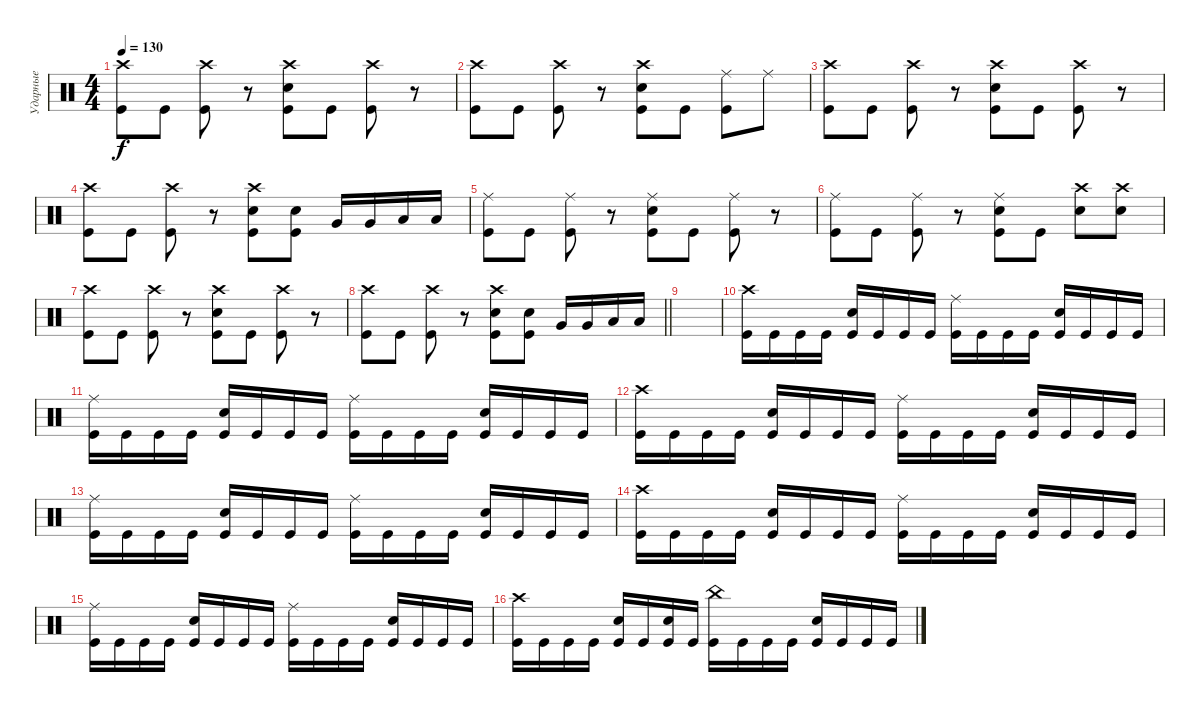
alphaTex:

\track ("Ударные" "Ударные") {instrument percussion}
\staff {score}
\articulation defaults
\ts (4 4)
\section ("" " ")
\tempo 130
\clef neutral
\ks c
("Crash high (hit)" "Kick (hit)").8{dy f} "Kick (hit)".8 ("Crash high (hit)" "Kick (hit)").8 r.8 ("Crash high (hit)" "Electric Snare (hit)" "Kick (hit)").8 "Kick (hit)".8 ("Crash high (hit)" "Kick (hit)").8 r.8 |
("Crash high (hit)" "Kick (hit)").8 "Kick (hit)".8 ("Crash high (hit)" "Kick (hit)").8 r.8 ("Crash high (hit)" "Electric Snare (hit)" "Kick (hit)").8 "Kick (hit)".8 ("Ride (middle)" "Kick (hit)").8 "Ride (middle)".8 |
("Crash high (hit)" "Kick (hit)").8 "Kick (hit)".8 ("Crash high (hit)" "Kick (hit)").8 r.8 ("Crash high (hit)" "Electric Snare (hit)" "Kick (hit)").8 "Kick (hit)".8 ("Crash high (hit)" "Kick (hit)").8 r.8 |
("Crash high (hit)" "Kick (hit)").8 "Kick (hit)".8 ("Crash high (hit)" "Kick (hit)").8 r.8 ("Crash high (hit)" "Electric Snare (hit)" "Kick (hit)").8 ("Electric Snare (hit)" "Kick (hit)").8 "Very Low Tom (hit)".16 "Very Low Tom (hit)".16 "Low Floor Tom (hit)".16 "Low Floor Tom (hit)".16 |
("Ride (middle)" "Kick (hit)").8 "Kick (hit)".8 ("Ride (middle)" "Kick (hit)").8 r.8 ("Ride (middle)" "Electric Snare (hit)" "Kick (hit)").8 "Kick (hit)".8 ("Ride (middle)" "Kick (hit)").8 r.8 |
("Ride (middle)" "Kick (hit)").8 "Kick (hit)".8 ("Ride (middle)" "Kick (hit)").8 r.8 ("Ride (middle)" "Electric Snare (hit)" "Kick (hit)").8 "Kick (hit)".8 ("Crash high (hit)" "Electric Snare (hit)").8 ("Crash high (hit)" "Electric Snare (hit)").8 |
("Crash high (hit)" "Kick (hit)").8 "Kick (hit)".8 ("Crash high (hit)" "Kick (hit)").8 r.8 ("Crash high (hit)" "Electric Snare (hit)" "Kick (hit)").8 "Kick (hit)".8 ("Crash high (hit)" "Kick (hit)").8 r.8 |
\barLineRight lightlight
("Crash high (hit)" "Kick (hit)").8 "Kick (hit)".8 ("Crash high (hit)" "Kick (hit)").8 r.8 ("Crash high (hit)" "Electric Snare (hit)" "Kick (hit)").8 ("Electric Snare (hit)" "Kick (hit)").8 "Very Low Tom (hit)".16 "Very Low Tom (hit)".16 "Low Floor Tom (hit)".16 "Low Floor Tom (hit)".16 |
\section ("" " ")
|
("Crash high (hit)" "Kick (hit)").16 "Kick (hit)".16 "Kick (hit)".16 "Kick (hit)".16 ("Electric Snare (hit)" "Kick (hit)").16 "Kick (hit)".16 "Kick (hit)".16 "Kick (hit)".16 ("Ride (middle)" "Kick (hit)").16 "Kick (hit)".16 "Kick (hit)".16 "Kick (hit)".16 ("Electric Snare (hit)" "Kick (hit)").16 "Kick (hit)".16 "Kick (hit)".16 "Kick (hit)".16 |
("Ride (middle)" "Kick (hit)").16 "Kick (hit)".16 "Kick (hit)".16 "Kick (hit)".16 ("Electric Snare (hit)" "Kick (hit)").16 "Kick (hit)".16 "Kick (hit)".16 "Kick (hit)".16 ("Ride (middle)" "Kick (hit)").16 "Kick (hit)".16 "Kick (hit)".16 "Kick (hit)".16 ("Electric Snare (hit)" "Kick (hit)").16 "Kick (hit)".16 "Kick (hit)".16 "Kick (hit)".16 |
("Crash high (hit)" "Kick (hit)").16 "Kick (hit)".16 "Kick (hit)".16 "Kick (hit)".16 ("Electric Snare (hit)" "Kick (hit)").16 "Kick (hit)".16 "Kick (hit)".16 "Kick (hit)".16 ("Ride (middle)" "Kick (hit)").16 "Kick (hit)".16 "Kick (hit)".16 "Kick (hit)".16 ("Electric Snare (hit)" "Kick (hit)").16 "Kick (hit)".16 "Kick (hit)".16 "Kick (hit)".16 |
("Ride (middle)" "Kick (hit)").16 "Kick (hit)".16 "Kick (hit)".16 "Kick (hit)".16 ("Electric Snare (hit)" "Kick (hit)").16 "Kick (hit)".16 "Kick (hit)".16 "Kick (hit)".16 ("Ride (middle)" "Kick (hit)").16 "Kick (hit)".16 "Kick (hit)".16 "Kick (hit)".16 ("Electric Snare (hit)" "Kick (hit)").16 "Kick (hit)".16 "Kick (hit)".16 "Kick (hit)".16 |
("Crash high (hit)" "Kick (hit)").16 "Kick (hit)".16 "Kick (hit)".16 "Kick (hit)".16 ("Electric Snare (hit)" "Kick (hit)").16 "Kick (hit)".16 "Kick (hit)".16 "Kick (hit)".16 ("Ride (middle)" "Kick (hit)").16 "Kick (hit)".16 "Kick (hit)".16 "Kick (hit)".16 ("Electric Snare (hit)" "Kick (hit)").16 "Kick (hit)".16 "Kick (hit)".16 "Kick (hit)".16 |
("Ride (middle)" "Kick (hit)").16 "Kick (hit)".16 "Kick (hit)".16 "Kick (hit)".16 ("Electric Snare (hit)" "Kick (hit)").16 "Kick (hit)".16 "Kick (hit)".16 "Kick (hit)".16 ("Ride (middle)" "Kick (hit)").16 "Kick (hit)".16 "Kick (hit)".16 "Kick (hit)".16 ("Electric Snare (hit)" "Kick (hit)").16 "Kick (hit)".16 "Kick (hit)".16 "Kick (hit)".16 |
("Crash high (hit)" "Kick (hit)").16 "Kick (hit)".16 "Kick (hit)".16 "Kick (hit)".16 ("Electric Snare (hit)" "Kick (hit)").16 "Kick (hit)".16 ("Electric Snare (hit)" "Kick (hit)").16 "Kick (hit)".16 ("China (hit)" "Kick (hit)").16 "Kick (hit)".16 "Kick (hit)".16 "Kick (hit)".16 ("Electric Snare (hit)" "Kick (hit)").16 "Kick (hit)".16 "Kick (hit)".16 "Kick (hit)".16
